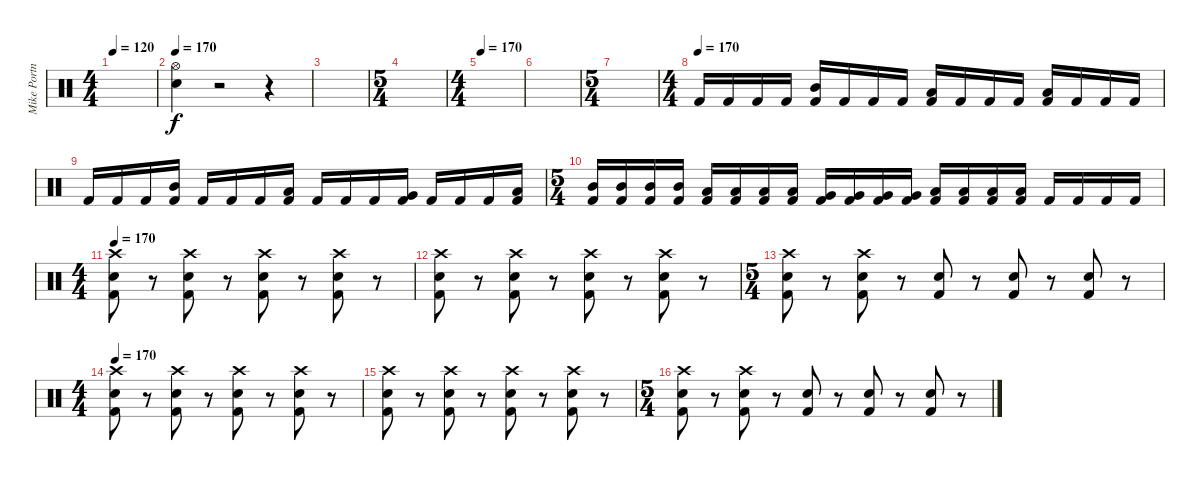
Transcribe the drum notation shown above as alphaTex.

\track ("Mike Portnoy" "Mike Portn") {instrument percussion}
\staff {score}
\articulation defaults
\ts (4 4)
\tempo 120
\clef neutral
\ks c
|
\tempo 170
("Hi-Hat (open)" "Electric Snare (hit)").4 r.2 r.4 |
|
\ts (5 4)
|
\ts (4 4)
\tempo 170
|
|
\ts (5 4)
|
\ts (4 4)
\tempo (170)
"Kick (hit) 2".16 "Kick (hit) 2".16 "Kick (hit) 2".16 "Kick (hit) 2".16 ("Mid Tom (hit)" "Kick (hit) 2").16 "Kick (hit) 2".16 "Kick (hit) 2".16 "Kick (hit) 2".16 ("Low Tom (hit)" "Kick (hit) 2").16 "Kick (hit) 2".16 "Kick (hit) 2".16 "Kick (hit) 2".16 ("Low Floor Tom (hit)" "Kick (hit) 2").16 "Kick (hit) 2".16 "Kick (hit) 2".16 "Kick (hit) 2".16 |
"Kick (hit) 2".16 "Kick (hit) 2".16 "Kick (hit) 2".16 ("Mid Tom (hit)" "Kick (hit) 2").16 "Kick (hit) 2".16 "Kick (hit) 2".16 "Kick (hit) 2".16 ("Low Tom (hit)" "Kick (hit) 2").16 "Kick (hit) 2".16 "Kick (hit) 2".16 "Kick (hit) 2".16 ("Very Low Tom (hit)" "Kick (hit) 2").16 "Kick (hit) 2".16 "Kick (hit) 2".16 "Kick (hit) 2".16 ("Low Floor Tom (hit)" "Kick (hit) 2").16 |
\ts (5 4)
("Mid Tom (hit)" "Kick (hit) 2").16 ("Mid Tom (hit)" "Kick (hit) 2").16 ("Mid Tom (hit)" "Kick (hit) 2").16 ("Mid Tom (hit)" "Kick (hit) 2").16 ("Low Tom (hit)" "Kick (hit) 2").16 ("Low Tom (hit)" "Kick (hit) 2").16 ("Low Tom (hit)" "Kick (hit) 2").16 ("Low Tom (hit)" "Kick (hit) 2").16 ("Very Low Tom (hit)" "Kick (hit) 2").16 ("Very Low Tom (hit)" "Kick (hit) 2").16 ("Very Low Tom (hit)" "Kick (hit) 2").16 ("Very Low Tom (hit)" "Kick (hit) 2").16 ("Low Floor Tom (hit)" "Kick (hit) 2").16 ("Low Floor Tom (hit)" "Kick (hit) 2").16 ("Low Floor Tom (hit)" "Kick (hit) 2").16 ("Low Floor Tom (hit)" "Kick (hit) 2").16 "Kick (hit) 2".16 "Kick (hit) 2".16 "Kick (hit) 2".16 "Kick (hit) 2".16 |
\ts (4 4)
\tempo 170
("Crash high (hit)" "Electric Snare (hit)" "Kick (hit) 2").8 r.8 ("Crash high (hit)" "Electric Snare (hit)" "Kick (hit) 2").8 r.8 ("Crash high (hit)" "Electric Snare (hit)" "Kick (hit) 2").8 r.8 ("Crash high (hit)" "Electric Snare (hit)" "Kick (hit) 2").8 r.8 |
("Crash high (hit)" "Electric Snare (hit)" "Kick (hit) 2").8 r.8 ("Crash high (hit)" "Electric Snare (hit)" "Kick (hit) 2").8 r.8 ("Crash high (hit)" "Electric Snare (hit)" "Kick (hit) 2").8 r.8 ("Crash high (hit)" "Electric Snare (hit)" "Kick (hit) 2").8 r.8 |
\ts (5 4)
("Crash high (hit)" "Electric Snare (hit)" "Kick (hit) 2").8 r.8 ("Crash high (hit)" "Electric Snare (hit)" "Kick (hit) 2").8 r.8 ("Electric Snare (hit)" "Kick (hit) 2").8 r.8 ("Electric Snare (hit)" "Kick (hit) 2").8 r.8 ("Electric Snare (hit)" "Kick (hit) 2").8 r.8 |
\ts (4 4)
\tempo 170
("Crash high (hit)" "Electric Snare (hit)" "Kick (hit) 2").8 r.8 ("Crash high (hit)" "Electric Snare (hit)" "Kick (hit) 2").8 r.8 ("Crash high (hit)" "Electric Snare (hit)" "Kick (hit) 2").8 r.8 ("Crash high (hit)" "Electric Snare (hit)" "Kick (hit) 2").8 r.8 |
("Crash high (hit)" "Electric Snare (hit)" "Kick (hit) 2").8 r.8 ("Crash high (hit)" "Electric Snare (hit)" "Kick (hit) 2").8 r.8 ("Crash high (hit)" "Electric Snare (hit)" "Kick (hit) 2").8 r.8 ("Crash high (hit)" "Electric Snare (hit)" "Kick (hit) 2").8 r.8 |
\ts (5 4)
("Crash high (hit)" "Electric Snare (hit)" "Kick (hit) 2").8 r.8 ("Crash high (hit)" "Electric Snare (hit)" "Kick (hit) 2").8 r.8 ("Electric Snare (hit)" "Kick (hit) 2").8 r.8 ("Electric Snare (hit)" "Kick (hit) 2").8 r.8 ("Electric Snare (hit)" "Kick (hit) 2").8 r.8
